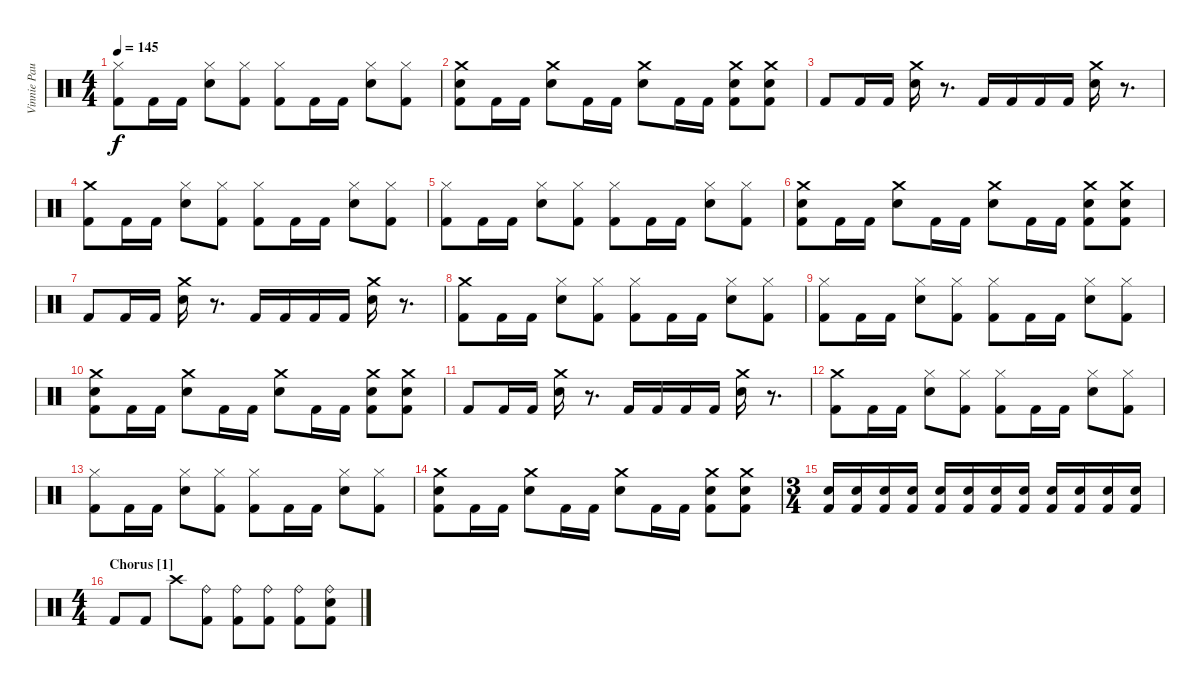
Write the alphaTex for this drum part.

\track ("Vinnie Paul" "Vinnie Pau") {instrument percussion}
\staff {score}
\articulation defaults
\ts (4 4)
\tempo 145
\clef neutral
\ks c
("Hi-Hat (closed)" "Kick (hit) 2").8{dy f} "Kick (hit) 2".16 "Kick (hit) 2".16 ("Hi-Hat (closed)" "Snare (hit) 2").8 ("Hi-Hat (closed)" "Kick (hit) 2").8 ("Hi-Hat (closed)" "Kick (hit) 2").8 "Kick (hit) 2".16 "Kick (hit) 2".16 ("Hi-Hat (closed)" "Snare (hit) 2").8 ("Hi-Hat (closed)" "Kick (hit) 2").8 |
("Crash medium (hit)" "Snare (hit) 2" "Kick (hit) 2").8 "Kick (hit) 2".16 "Kick (hit) 2".16 ("Crash medium (hit)" "Snare (hit) 2").8 "Kick (hit) 2".16 "Kick (hit) 2".16 ("Crash medium (hit)" "Snare (hit) 2").8 "Kick (hit) 2".16 "Kick (hit) 2".16 ("Crash medium (hit)" "Snare (hit) 2" "Kick (hit) 2").8 ("Crash medium (hit)" "Snare (hit) 2" "Kick (hit) 2").8 |
"Kick (hit) 2".8 "Kick (hit) 2".16 "Kick (hit) 2".16 ("Crash medium (hit)" "Snare (hit) 2").16 r.8{d} "Kick (hit) 2".16 "Kick (hit) 2".16 "Kick (hit) 2".16 "Kick (hit) 2".16 ("Crash medium (hit)" "Snare (hit) 2").16 r.8{d} |
("Crash medium (hit)" "Kick (hit) 2").8 "Kick (hit) 2".16 "Kick (hit) 2".16 ("Hi-Hat (closed)" "Snare (hit) 2").8 ("Hi-Hat (closed)" "Kick (hit) 2").8 ("Hi-Hat (closed)" "Kick (hit) 2").8 "Kick (hit) 2".16 "Kick (hit) 2".16 ("Hi-Hat (closed)" "Snare (hit) 2").8 ("Hi-Hat (closed)" "Kick (hit) 2").8 |
("Hi-Hat (closed)" "Kick (hit) 2").8 "Kick (hit) 2".16 "Kick (hit) 2".16 ("Hi-Hat (closed)" "Snare (hit) 2").8 ("Hi-Hat (closed)" "Kick (hit) 2").8 ("Hi-Hat (closed)" "Kick (hit) 2").8 "Kick (hit) 2".16 "Kick (hit) 2".16 ("Hi-Hat (closed)" "Snare (hit) 2").8 ("Hi-Hat (closed)" "Kick (hit) 2").8 |
("Crash medium (hit)" "Snare (hit) 2" "Kick (hit) 2").8 "Kick (hit) 2".16 "Kick (hit) 2".16 ("Crash medium (hit)" "Snare (hit) 2").8 "Kick (hit) 2".16 "Kick (hit) 2".16 ("Crash medium (hit)" "Snare (hit) 2").8 "Kick (hit) 2".16 "Kick (hit) 2".16 ("Crash medium (hit)" "Snare (hit) 2" "Kick (hit) 2").8 ("Crash medium (hit)" "Snare (hit) 2" "Kick (hit) 2").8 |
"Kick (hit) 2".8 "Kick (hit) 2".16 "Kick (hit) 2".16 ("Crash medium (hit)" "Snare (hit) 2").16 r.8{d} "Kick (hit) 2".16 "Kick (hit) 2".16 "Kick (hit) 2".16 "Kick (hit) 2".16 ("Crash medium (hit)" "Snare (hit) 2").16 r.8{d} |
("Crash medium (hit)" "Kick (hit) 2").8 "Kick (hit) 2".16 "Kick (hit) 2".16 ("Hi-Hat (closed)" "Snare (hit) 2").8 ("Hi-Hat (closed)" "Kick (hit) 2").8 ("Hi-Hat (closed)" "Kick (hit) 2").8 "Kick (hit) 2".16 "Kick (hit) 2".16 ("Hi-Hat (closed)" "Snare (hit) 2").8 ("Hi-Hat (closed)" "Kick (hit) 2").8 |
("Hi-Hat (closed)" "Kick (hit) 2").8 "Kick (hit) 2".16 "Kick (hit) 2".16 ("Hi-Hat (closed)" "Snare (hit) 2").8 ("Hi-Hat (closed)" "Kick (hit) 2").8 ("Hi-Hat (closed)" "Kick (hit) 2").8 "Kick (hit) 2".16 "Kick (hit) 2".16 ("Hi-Hat (closed)" "Snare (hit) 2").8 ("Hi-Hat (closed)" "Kick (hit) 2").8 |
("Crash medium (hit)" "Snare (hit) 2" "Kick (hit) 2").8 "Kick (hit) 2".16 "Kick (hit) 2".16 ("Crash medium (hit)" "Snare (hit) 2").8 "Kick (hit) 2".16 "Kick (hit) 2".16 ("Crash medium (hit)" "Snare (hit) 2").8 "Kick (hit) 2".16 "Kick (hit) 2".16 ("Crash medium (hit)" "Snare (hit) 2" "Kick (hit) 2").8 ("Crash medium (hit)" "Snare (hit) 2" "Kick (hit) 2").8 |
"Kick (hit) 2".8 "Kick (hit) 2".16 "Kick (hit) 2".16 ("Crash medium (hit)" "Snare (hit) 2").16 r.8{d} "Kick (hit) 2".16 "Kick (hit) 2".16 "Kick (hit) 2".16 "Kick (hit) 2".16 ("Crash medium (hit)" "Snare (hit) 2").16 r.8{d} |
("Crash medium (hit)" "Kick (hit) 2").8 "Kick (hit) 2".16 "Kick (hit) 2".16 ("Hi-Hat (closed)" "Snare (hit) 2").8 ("Hi-Hat (closed)" "Kick (hit) 2").8 ("Hi-Hat (closed)" "Kick (hit) 2").8 "Kick (hit) 2".16 "Kick (hit) 2".16 ("Hi-Hat (closed)" "Snare (hit) 2").8 ("Hi-Hat (closed)" "Kick (hit) 2").8 |
("Hi-Hat (closed)" "Kick (hit) 2").8 "Kick (hit) 2".16 "Kick (hit) 2".16 ("Hi-Hat (closed)" "Snare (hit) 2").8 ("Hi-Hat (closed)" "Kick (hit) 2").8 ("Hi-Hat (closed)" "Kick (hit) 2").8 "Kick (hit) 2".16 "Kick (hit) 2".16 ("Hi-Hat (closed)" "Snare (hit) 2").8 ("Hi-Hat (closed)" "Kick (hit) 2").8 |
("Crash medium (hit)" "Snare (hit) 2" "Kick (hit) 2").8 "Kick (hit) 2".16 "Kick (hit) 2".16 ("Crash medium (hit)" "Snare (hit) 2").8 "Kick (hit) 2".16 "Kick (hit) 2".16 ("Crash medium (hit)" "Snare (hit) 2").8 "Kick (hit) 2".16 "Kick (hit) 2".16 ("Crash medium (hit)" "Snare (hit) 2" "Kick (hit) 2").8 ("Crash medium (hit)" "Snare (hit) 2" "Kick (hit) 2").8 |
\ts (3 4)
("Snare (hit) 2" "Kick (hit) 2").16 ("Snare (hit) 2" "Kick (hit) 2").16 ("Snare (hit) 2" "Kick (hit) 2").16 ("Snare (hit) 2" "Kick (hit) 2").16 ("Snare (hit) 2" "Kick (hit) 2").16 ("Snare (hit) 2" "Kick (hit) 2").16 ("Snare (hit) 2" "Kick (hit) 2").16 ("Snare (hit) 2" "Kick (hit) 2").16 ("Snare (hit) 2" "Kick (hit) 2").16 ("Snare (hit) 2" "Kick (hit) 2").16 ("Snare (hit) 2" "Kick (hit) 2").16 ("Snare (hit) 2" "Kick (hit) 2").16 |
\ts (4 4)
\section ("" "Chorus [1]")
"Kick (hit) 2".8 "Kick (hit) 2".8 "Crash high (hit)".8 ("Ride (bell)" "Kick (hit) 2").8 ("Ride (bell)" "Kick (hit) 2").8 ("Ride (bell)" "Kick (hit) 2").8 ("Ride (bell)" "Kick (hit) 2").8 ("Ride (bell)" "Snare (hit) 2" "Kick (hit) 2").8
